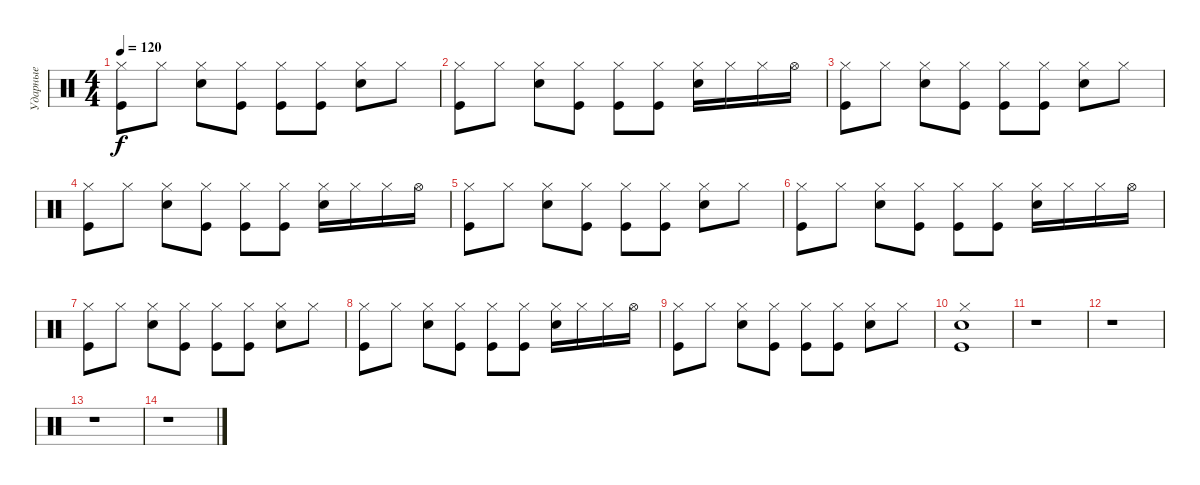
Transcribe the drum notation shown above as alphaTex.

\track ("Ударные" "Ударные") {instrument percussion}
\staff {score}
\articulation defaults
\ts (4 4)
\tempo 120
\clef neutral
\ks c
("Kick (hit)" "Hi-Hat (closed)").8{dy f} "Hi-Hat (closed)".8 ("Hi-Hat (closed)" "Snare (hit) 2").8 ("Hi-Hat (closed)" "Kick (hit)").8 ("Hi-Hat (closed)" "Kick (hit)").8 ("Hi-Hat (closed)" "Kick (hit)").8 ("Hi-Hat (closed)" "Snare (hit) 2").8 "Hi-Hat (closed)".8 |
("Kick (hit)" "Hi-Hat (closed)").8 "Hi-Hat (closed)".8 ("Hi-Hat (closed)" "Snare (hit) 2").8 ("Hi-Hat (closed)" "Kick (hit)").8 ("Hi-Hat (closed)" "Kick (hit)").8 ("Hi-Hat (closed)" "Kick (hit)").8 ("Hi-Hat (closed)" "Snare (hit) 2").16 "Hi-Hat (closed)".16 "Hi-Hat (closed)".16 "Hi-Hat (open)".16 |
("Kick (hit)" "Hi-Hat (closed)").8 "Hi-Hat (closed)".8 ("Hi-Hat (closed)" "Snare (hit) 2").8 ("Hi-Hat (closed)" "Kick (hit)").8 ("Hi-Hat (closed)" "Kick (hit)").8 ("Hi-Hat (closed)" "Kick (hit)").8 ("Hi-Hat (closed)" "Snare (hit) 2").8 "Hi-Hat (closed)".8 |
("Kick (hit)" "Hi-Hat (closed)").8 "Hi-Hat (closed)".8 ("Hi-Hat (closed)" "Snare (hit) 2").8 ("Hi-Hat (closed)" "Kick (hit)").8 ("Hi-Hat (closed)" "Kick (hit)").8 ("Hi-Hat (closed)" "Kick (hit)").8 ("Hi-Hat (closed)" "Snare (hit) 2").16 "Hi-Hat (closed)".16 "Hi-Hat (closed)".16 "Hi-Hat (open)".16 |
("Kick (hit)" "Hi-Hat (closed)").8 "Hi-Hat (closed)".8 ("Hi-Hat (closed)" "Snare (hit) 2").8 ("Hi-Hat (closed)" "Kick (hit)").8 ("Hi-Hat (closed)" "Kick (hit)").8 ("Hi-Hat (closed)" "Kick (hit)").8 ("Hi-Hat (closed)" "Snare (hit) 2").8 "Hi-Hat (closed)".8 |
("Kick (hit)" "Hi-Hat (closed)").8 "Hi-Hat (closed)".8 ("Hi-Hat (closed)" "Snare (hit) 2").8 ("Hi-Hat (closed)" "Kick (hit)").8 ("Hi-Hat (closed)" "Kick (hit)").8 ("Hi-Hat (closed)" "Kick (hit)").8 ("Hi-Hat (closed)" "Snare (hit) 2").16 "Hi-Hat (closed)".16 "Hi-Hat (closed)".16 "Hi-Hat (open)".16 |
("Kick (hit)" "Hi-Hat (closed)").8 "Hi-Hat (closed)".8 ("Hi-Hat (closed)" "Snare (hit) 2").8 ("Hi-Hat (closed)" "Kick (hit)").8 ("Hi-Hat (closed)" "Kick (hit)").8 ("Hi-Hat (closed)" "Kick (hit)").8 ("Hi-Hat (closed)" "Snare (hit) 2").8 "Hi-Hat (closed)".8 |
("Kick (hit)" "Hi-Hat (closed)").8 "Hi-Hat (closed)".8 ("Hi-Hat (closed)" "Snare (hit) 2").8 ("Hi-Hat (closed)" "Kick (hit)").8 ("Hi-Hat (closed)" "Kick (hit)").8 ("Hi-Hat (closed)" "Kick (hit)").8 ("Hi-Hat (closed)" "Snare (hit) 2").16 "Hi-Hat (closed)".16 "Hi-Hat (closed)".16 "Hi-Hat (open)".16 |
("Kick (hit)" "Hi-Hat (closed)").8 "Hi-Hat (closed)".8 ("Hi-Hat (closed)" "Snare (hit) 2").8 ("Hi-Hat (closed)" "Kick (hit)").8 ("Hi-Hat (closed)" "Kick (hit)").8 ("Hi-Hat (closed)" "Kick (hit)").8 ("Hi-Hat (closed)" "Snare (hit) 2").8 "Hi-Hat (closed)".8 |
("Kick (hit)" "Snare (hit) 2" "Hi-Hat (closed)").1 |
r.1 |
r.1 |
r.1 |
r.1
